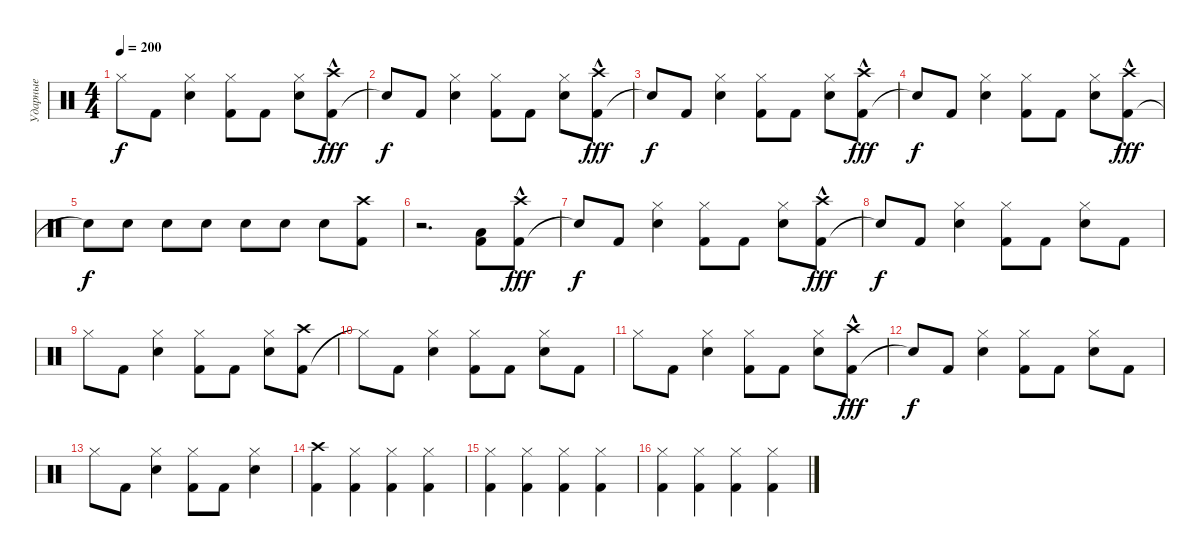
\track ("Ударные" "Ударные") {instrument percussion}
\staff {score}
\articulation defaults
\ts (4 4)
\tempo 200
\clef neutral
\ks c "Hi-Hat (closed)".8{dy f} "Kick (hit) 2".8
("Snare (hit) 2" "Hi-Hat (closed)").4 ("Kick (hit) 2" "Hi-Hat (closed)").8 "Kick (hit) 2".8 ("Snare (hit) 2" "Hi-Hat (closed)").8 ("Kick (hit) 2" "Crash high (hit)"{hac}).8{dy fff} |
"Snare (hit)"{t}.8{dy f} "Kick (hit) 2".8 ("Snare (hit) 2" "Hi-Hat (closed)").4 ("Kick (hit) 2" "Hi-Hat (closed)").8 "Kick (hit) 2".8 ("Snare (hit) 2" "Hi-Hat (closed)").8 ("Kick (hit) 2" "Crash high (hit)"{hac}).8{dy fff} |
"Snare (hit)"{t}.8{dy f} "Kick (hit) 2".8 ("Snare (hit) 2" "Hi-Hat (closed)").4 ("Kick (hit) 2" "Hi-Hat (closed)").8 "Kick (hit) 2".8 ("Snare (hit) 2" "Hi-Hat (closed)").8 ("Kick (hit) 2" "Crash high (hit)"{hac}).8{dy fff} |
"Snare (hit)"{t}.8{dy f} "Kick (hit) 2".8 ("Snare (hit) 2" "Hi-Hat (closed)").4 ("Kick (hit) 2" "Hi-Hat (closed)").8 "Kick (hit) 2".8 ("Snare (hit) 2" "Hi-Hat (closed)").8 ("Kick (hit) 2" "Crash high (hit)"{hac}).8{dy fff} |
"Snare (hit)"{t}.8{dy f} "Snare (hit) 2".8 "Snare (hit) 2".8 "Snare (hit) 2".8 "Snare (hit) 2".8 "Snare (hit) 2".8 "Snare (hit) 2".8 ("Kick (hit) 2" "Crash high (hit)").8 |
r.2{d} ("Kick (hit) 2" "Low Floor Tom (hit)").8 ("Kick (hit) 2" "Crash high (hit)"{hac}).8{dy fff} |
"Snare (hit)"{t}.8{dy f} "Kick (hit) 2".8 ("Snare (hit) 2" "Hi-Hat (closed)").4 ("Kick (hit) 2" "Hi-Hat (closed)").8 "Kick (hit) 2".8 ("Snare (hit) 2" "Hi-Hat (closed)").8 ("Kick (hit) 2" "Crash high (hit)"{hac}).8{dy fff} |
"Snare (hit)"{t}.8{dy f} "Kick (hit) 2".8 ("Snare (hit) 2" "Hi-Hat (closed)").4 ("Kick (hit) 2" "Hi-Hat (closed)").8 "Kick (hit) 2".8 ("Snare (hit) 2" "Hi-Hat (closed)").8 "Kick (hit) 2".8 |
"Hi-Hat (closed)".8 "Kick (hit) 2".8 ("Snare (hit) 2" "Hi-Hat (closed)").4 ("Kick (hit) 2" "Hi-Hat (closed)").8 "Kick (hit) 2".8 ("Snare (hit) 2" "Hi-Hat (closed)").8 ("Kick (hit) 2" "Crash high (hit)").8 |
"Hi-Hat (closed)"{t}.8 "Kick (hit) 2".8 ("Snare (hit) 2" "Hi-Hat (closed)").4 ("Kick (hit) 2" "Hi-Hat (closed)").8 "Kick (hit) 2".8 ("Snare (hit) 2" "Hi-Hat (closed)").8 "Kick (hit) 2".8 |
"Hi-Hat (closed)".8 "Kick (hit) 2".8 ("Snare (hit) 2" "Hi-Hat (closed)").4 ("Kick (hit) 2" "Hi-Hat (closed)").8 "Kick (hit) 2".8 ("Snare (hit) 2" "Hi-Hat (closed)").8 ("Kick (hit) 2" "Crash high (hit)"{hac}).8{dy fff} |
"Snare (hit)"{t}.8{dy f} "Kick (hit) 2".8 ("Snare (hit) 2" "Hi-Hat (closed)").4 ("Kick (hit) 2" "Hi-Hat (closed)").8 "Kick (hit) 2".8 ("Snare (hit) 2" "Hi-Hat (closed)").8 "Kick (hit) 2".8 |
"Hi-Hat (closed)".8 "Kick (hit) 2".8 ("Snare (hit) 2" "Hi-Hat (closed)").4 ("Kick (hit) 2" "Hi-Hat (closed)").8 "Kick (hit) 2".8 ("Snare (hit) 2" "Hi-Hat (closed)").4 |
("Kick (hit) 2" "Crash high (hit)").4 ("Kick (hit) 2" "Hi-Hat (closed)").4 ("Kick (hit) 2" "Hi-Hat (closed)").4 ("Kick (hit) 2" "Hi-Hat (closed)").4 |
("Kick (hit) 2" "Hi-Hat (closed)").4 ("Kick (hit) 2" "Hi-Hat (closed)").4 ("Kick (hit) 2" "Hi-Hat (closed)").4 ("Kick (hit) 2" "Hi-Hat (closed)").4 |
("Kick (hit) 2" "Hi-Hat (closed)").4 ("Kick (hit) 2" "Hi-Hat (closed)").4 ("Kick (hit) 2" "Hi-Hat (closed)").4 ("Kick (hit) 2" "Hi-Hat (closed)").4
